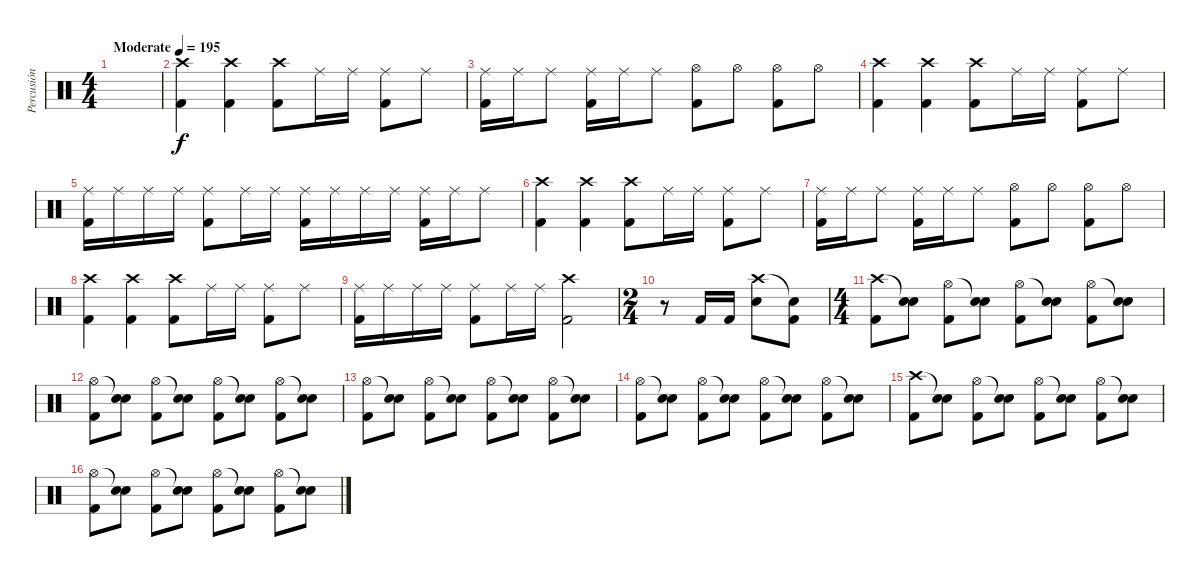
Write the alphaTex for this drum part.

\track ("Percusión" "Percusión") {instrument percussion}
\staff {score}
\articulation defaults
\ts (4 4)
\tempo (195 "Moderate")
\clef neutral
\ks c
|
("Kick (hit) 2" "Crash high (hit)").4 ("Kick (hit) 2" "Crash high (hit)").4 ("Kick (hit) 2" "Crash high (hit)").8 "Ride (middle)".16 "Ride (middle)".16 ("Kick (hit) 2" "Ride (middle)").8 "Ride (middle)".8 |
("Kick (hit) 2" "Ride (middle)").16 "Ride (middle)".16 "Ride (middle)".8 ("Kick (hit) 2" "Ride (middle)").16 "Ride (middle)".16 "Ride (middle)".8 ("Kick (hit) 2" "Hi-Hat (open)").8 "Hi-Hat (open)".8 ("Kick (hit) 2" "Hi-Hat (open)").8 "Hi-Hat (open)".8 |
("Kick (hit) 2" "Crash high (hit)").4 ("Kick (hit) 2" "Crash high (hit)").4 ("Kick (hit) 2" "Crash high (hit)").8 "Ride (middle)".16 "Ride (middle)".16 ("Kick (hit) 2" "Ride (middle)").8 "Ride (middle)".8 |
("Kick (hit) 2" "Ride (middle)").16 "Ride (middle)".16 "Ride (middle)".16 "Ride (middle)".16 ("Kick (hit) 2" "Ride (middle)").8 "Ride (middle)".16 "Ride (middle)".16 ("Kick (hit) 2" "Ride (middle)").16 "Ride (middle)".16 "Ride (middle)".16 "Ride (middle)".16 ("Kick (hit) 2" "Ride (middle)").16 "Ride (middle)".16 "Ride (middle)".8 |
("Kick (hit) 2" "Crash high (hit)").4 ("Kick (hit) 2" "Crash high (hit)").4 ("Kick (hit) 2" "Crash high (hit)").8 "Ride (middle)".16 "Ride (middle)".16 ("Kick (hit) 2" "Ride (middle)").8 "Ride (middle)".8 |
("Kick (hit) 2" "Ride (middle)").16 "Ride (middle)".16 "Ride (middle)".8 ("Kick (hit) 2" "Ride (middle)").16 "Ride (middle)".16 "Ride (middle)".8 ("Kick (hit) 2" "Hi-Hat (open)").8 "Hi-Hat (open)".8 ("Kick (hit) 2" "Hi-Hat (open)").8 "Hi-Hat (open)".8 |
("Kick (hit) 2" "Crash high (hit)").4 ("Kick (hit) 2" "Crash high (hit)").4 ("Kick (hit) 2" "Crash high (hit)").8 "Ride (middle)".16 "Ride (middle)".16 ("Kick (hit) 2" "Ride (middle)").8 "Ride (middle)".8 |
("Kick (hit) 2" "Ride (middle)").16 "Ride (middle)".16 "Ride (middle)".16 "Ride (middle)".16 ("Kick (hit) 2" "Ride (middle)").8 "Ride (middle)".16 "Ride (middle)".16 ("Kick (hit) 2" "Crash high (hit)").2 |
\ts (2 4)
r.8 "Kick (hit) 2".16 "Kick (hit) 2".16 ("Snare (hit) 2" "Crash high (hit)").8 ("Kick (hit) 2" "Snare (hit)"{t}).8 |
\ts (4 4)
("Kick (hit) 2" "Crash high (hit)").8 ("Snare (hit) 2" "Snare (hit)"{t}).8 ("Kick (hit) 2" "Hi-Hat (open)").8 ("Snare (hit) 2" "Snare (hit)"{t}).8 ("Kick (hit) 2" "Hi-Hat (open)").8 ("Snare (hit) 2" "Snare (hit)"{t}).8 ("Kick (hit) 2" "Hi-Hat (open)").8 ("Snare (hit) 2" "Snare (hit)"{t}).8 |
("Kick (hit) 2" "Hi-Hat (open)").8 ("Snare (hit) 2" "Snare (hit)"{t}).8 ("Kick (hit) 2" "Hi-Hat (open)").8 ("Snare (hit) 2" "Snare (hit)"{t}).8 ("Kick (hit) 2" "Hi-Hat (open)").8 ("Snare (hit) 2" "Snare (hit)"{t}).8 ("Kick (hit) 2" "Hi-Hat (open)").8 ("Snare (hit) 2" "Snare (hit)"{t}).8 |
("Kick (hit) 2" "Hi-Hat (open)").8 ("Snare (hit) 2" "Snare (hit)"{t}).8 ("Kick (hit) 2" "Hi-Hat (open)").8 ("Snare (hit) 2" "Snare (hit)"{t}).8 ("Kick (hit) 2" "Hi-Hat (open)").8 ("Snare (hit) 2" "Snare (hit)"{t}).8 ("Kick (hit) 2" "Hi-Hat (open)").8 ("Snare (hit) 2" "Snare (hit)"{t}).8 |
("Kick (hit) 2" "Hi-Hat (open)").8 ("Snare (hit) 2" "Snare (hit)"{t}).8 ("Kick (hit) 2" "Hi-Hat (open)").8 ("Snare (hit) 2" "Snare (hit)"{t}).8 ("Kick (hit) 2" "Hi-Hat (open)").8 ("Snare (hit) 2" "Snare (hit)"{t}).8 ("Kick (hit) 2" "Hi-Hat (open)").8 ("Snare (hit) 2" "Snare (hit)"{t}).8 |
("Kick (hit) 2" "Crash high (hit)").8 ("Snare (hit) 2" "Snare (hit)"{t}).8 ("Kick (hit) 2" "Hi-Hat (open)").8 ("Snare (hit) 2" "Snare (hit)"{t}).8 ("Kick (hit) 2" "Hi-Hat (open)").8 ("Snare (hit) 2" "Snare (hit)"{t}).8 ("Kick (hit) 2" "Hi-Hat (open)").8 ("Snare (hit) 2" "Snare (hit)"{t}).8 |
("Kick (hit) 2" "Hi-Hat (open)").8 ("Snare (hit) 2" "Snare (hit)"{t}).8 ("Kick (hit) 2" "Hi-Hat (open)").8 ("Snare (hit) 2" "Snare (hit)"{t}).8 ("Kick (hit) 2" "Hi-Hat (open)").8 ("Snare (hit) 2" "Snare (hit)"{t}).8 ("Kick (hit) 2" "Hi-Hat (open)").8 ("Snare (hit) 2" "Snare (hit)"{t}).8
